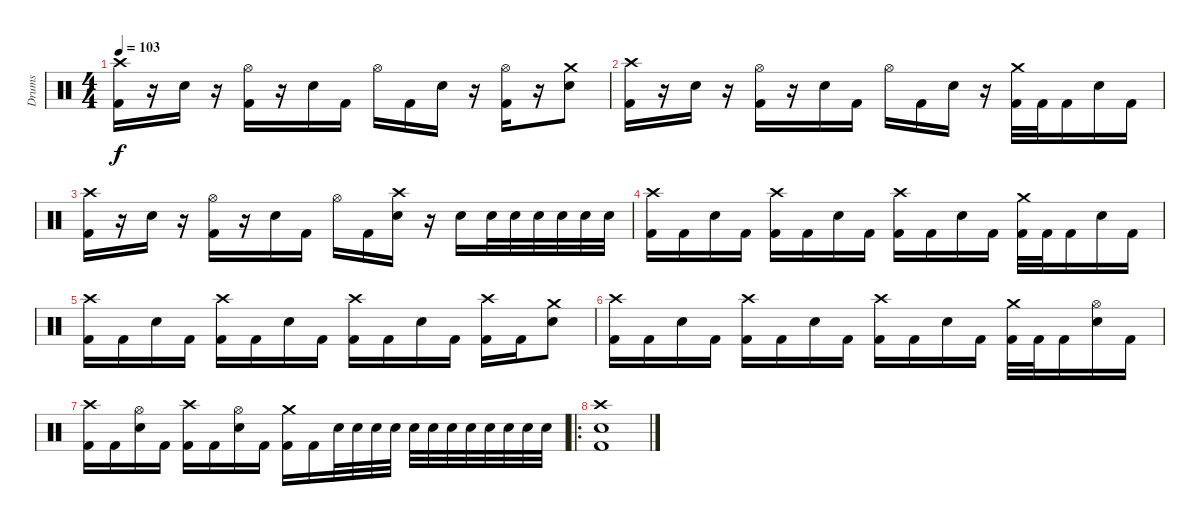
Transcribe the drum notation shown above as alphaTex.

\track ("Drums" "Drums") {instrument percussion}
\staff {score}
\articulation defaults
\ts (4 4)
\tempo 103
\clef neutral
\ks c
("Crash high (hit)" "Kick (hit) 2").16{dy f} r.16 "Snare (hit) 2".16 r.16 ("Hi-Hat (open)" "Kick (hit) 2").16 r.16 "Snare (hit) 2".16 "Kick (hit) 2".16 "Hi-Hat (open)".16 "Kick (hit) 2".16 "Snare (hit) 2".16 r.16 ("Hi-Hat (open)" "Kick (hit) 2").16 r.16 ("Crash medium (hit)" "Snare (hit) 2").8 |
("Crash high (hit)" "Kick (hit) 2").16 r.16 "Snare (hit) 2".16 r.16 ("Hi-Hat (open)" "Kick (hit) 2").16 r.16 "Snare (hit) 2".16 "Kick (hit) 2".16 "Hi-Hat (open)".16 "Kick (hit) 2".16 "Snare (hit) 2".16 r.16 ("Crash medium (hit)" "Kick (hit) 2").32 "Kick (hit) 2".32 "Kick (hit) 2".16 "Snare (hit) 2".16 "Kick (hit) 2".16 |
("Crash high (hit)" "Kick (hit) 2").16 r.16 "Snare (hit) 2".16 r.16 ("Hi-Hat (open)" "Kick (hit) 2").16 r.16 "Snare (hit) 2".16 "Kick (hit) 2".16 "Hi-Hat (open)".16 "Kick (hit) 2".16 ("Crash high (hit)" "Snare (hit) 2").16 r.16 "Snare (hit) 2".16 "Snare (hit) 2".32 "Snare (hit) 2".32 "Snare (hit) 2".32 "Snare (hit) 2".32 "Snare (hit) 2".32 "Snare (hit) 2".32 |
("Crash high (hit)" "Kick (hit) 2").16 "Kick (hit) 2".16 "Snare (hit) 2".16 "Kick (hit) 2".16 ("Crash high (hit)" "Kick (hit) 2").16 "Kick (hit) 2".16 "Snare (hit) 2".16 "Kick (hit) 2".16 ("Crash high (hit)" "Kick (hit) 2").16 "Kick (hit) 2".16 "Snare (hit) 2".16 "Kick (hit) 2".16 ("Crash medium (hit)" "Kick (hit) 2").32 "Kick (hit) 2".32 "Kick (hit) 2".16 "Snare (hit) 2".16 "Kick (hit) 2".16 |
("Crash high (hit)" "Kick (hit) 2").16 "Kick (hit) 2".16 "Snare (hit) 2".16 "Kick (hit) 2".16 ("Crash high (hit)" "Kick (hit) 2").16 "Kick (hit) 2".16 "Snare (hit) 2".16 "Kick (hit) 2".16 ("Crash high (hit)" "Kick (hit) 2").16 "Kick (hit) 2".16 "Snare (hit) 2".16 "Kick (hit) 2".16 ("Crash high (hit)" "Kick (hit) 2").16 "Kick (hit) 2".16 ("Crash medium (hit)" "Snare (hit) 2").8 |
("Crash high (hit)" "Kick (hit) 2").16 "Kick (hit) 2".16 "Snare (hit) 2".16 "Kick (hit) 2".16 ("Crash high (hit)" "Kick (hit) 2").16 "Kick (hit) 2".16 "Snare (hit) 2".16 "Kick (hit) 2".16 ("Crash high (hit)" "Kick (hit) 2").16 "Kick (hit) 2".16 "Snare (hit) 2".16 "Kick (hit) 2".16 ("Crash medium (hit)" "Kick (hit) 2").32 "Kick (hit) 2".32 "Kick (hit) 2".16 ("Hi-Hat (open)" "Snare (hit) 2").16 "Kick (hit) 2".16 |
("Crash high (hit)" "Kick (hit) 2").16 "Kick (hit) 2".16 ("Hi-Hat (open)" "Snare (hit) 2").16 "Kick (hit) 2".16 ("Crash high (hit)" "Kick (hit) 2").16 "Kick (hit) 2".16 ("Hi-Hat (open)" "Snare (hit) 2").16 "Kick (hit) 2".16 ("Crash medium (hit)" "Kick (hit) 2").16 "Kick (hit) 2".16 "Snare (hit) 2".32 "Snare (hit) 2".32 "Snare (hit) 2".32 "Snare (hit) 2".32 "Snare (hit) 2".32 "Snare (hit) 2".32 "Snare (hit) 2".32 "Snare (hit) 2".32 "Snare (hit) 2".32 "Snare (hit) 2".32 "Snare (hit) 2".32 "Snare (hit) 2".32 |
\ro
("Crash high (hit)" "Snare (hit) 2" "Kick (hit) 2").1
